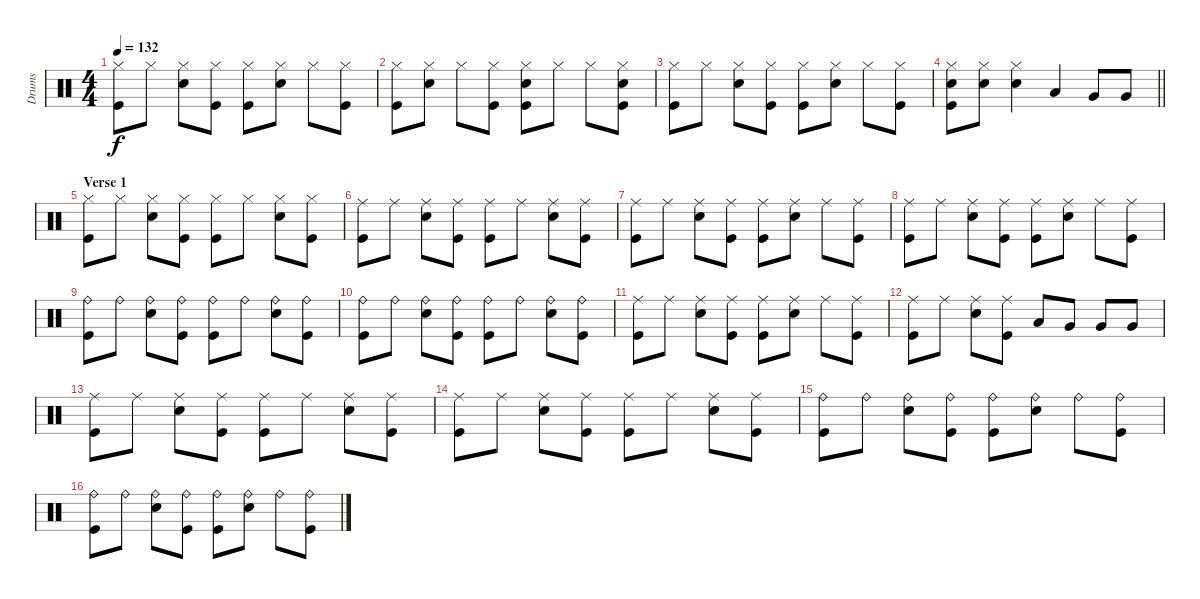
\track ("Drums" "Drums") {instrument percussion}
\staff {score}
\articulation defaults
\ts (4 4)
\tempo 132
\clef neutral
\ks c
("Hi-Hat (closed)" "Kick (hit)").8{dy f} "Hi-Hat (closed)".8 ("Hi-Hat (closed)" "Electric Snare (hit)").8 ("Hi-Hat (closed)" "Kick (hit)").8 ("Hi-Hat (closed)" "Kick (hit)").8 ("Hi-Hat (closed)" "Electric Snare (hit)").8 "Hi-Hat (closed)".8 ("Hi-Hat (closed)" "Kick (hit)").8 |
("Hi-Hat (closed)" "Kick (hit)").8 ("Hi-Hat (closed)" "Electric Snare (hit)").8 "Hi-Hat (closed)".8 ("Hi-Hat (closed)" "Kick (hit)").8 ("Hi-Hat (closed)" "Electric Snare (hit)" "Kick (hit)").8 "Hi-Hat (closed)".8 "Hi-Hat (closed)".8 ("Hi-Hat (closed)" "Electric Snare (hit)" "Kick (hit)").8 |
("Hi-Hat (closed)" "Kick (hit)").8 "Hi-Hat (closed)".8 ("Hi-Hat (closed)" "Electric Snare (hit)").8 ("Hi-Hat (closed)" "Kick (hit)").8 ("Hi-Hat (closed)" "Kick (hit)").8 ("Hi-Hat (closed)" "Electric Snare (hit)").8 "Hi-Hat (closed)".8 ("Hi-Hat (closed)" "Kick (hit)").8 |
\barLineRight lightlight
("Hi-Hat (closed)" "Electric Snare (hit)" "Kick (hit)").8 ("Hi-Hat (closed)" "Electric Snare (hit)").8 ("Hi-Hat (closed)" "Electric Snare (hit)").4 "Low Tom (hit)".4 "Very Low Tom (hit)".8 "Very Low Tom (hit)".8 |
\section ("" "Verse 1")
("Hi-Hat (closed)" "Kick (hit)").8 "Hi-Hat (closed)".8 ("Hi-Hat (closed)" "Electric Snare (hit)").8 ("Hi-Hat (closed)" "Kick (hit)").8 ("Hi-Hat (closed)" "Kick (hit)").8 "Hi-Hat (closed)".8 ("Hi-Hat (closed)" "Electric Snare (hit)").8 ("Hi-Hat (closed)" "Kick (hit)").8 |
("Ride (middle)" "Kick (hit)").8 "Ride (middle)".8 ("Ride (middle)" "Electric Snare (hit)").8 ("Ride (middle)" "Kick (hit)").8 ("Ride (middle)" "Kick (hit)").8 "Ride (middle)".8 ("Ride (middle)" "Electric Snare (hit)").8 ("Ride (middle)" "Kick (hit)").8 |
("Ride (middle)" "Kick (hit)").8 "Ride (middle)".8 ("Ride (middle)" "Electric Snare (hit)").8 ("Ride (middle)" "Kick (hit)").8 ("Ride (middle)" "Kick (hit)").8 ("Ride (middle)" "Electric Snare (hit)").8 "Ride (middle)".8 ("Ride (middle)" "Kick (hit)").8 |
("Ride (middle)" "Kick (hit)").8 "Ride (middle)".8 ("Ride (middle)" "Electric Snare (hit)").8 ("Ride (middle)" "Kick (hit)").8 ("Ride (middle)" "Kick (hit)").8 ("Ride (middle)" "Electric Snare (hit)").8 "Ride (middle)".8 ("Ride (middle)" "Kick (hit)").8 |
("Ride (bell)" "Kick (hit)").8 "Ride (bell)".8 ("Ride (bell)" "Electric Snare (hit)").8 ("Ride (bell)" "Kick (hit)").8 ("Ride (bell)" "Kick (hit)").8 "Ride (bell)".8 ("Ride (bell)" "Electric Snare (hit)").8 ("Ride (bell)" "Kick (hit)").8 |
("Ride (bell)" "Kick (hit)").8 "Ride (bell)".8 ("Ride (bell)" "Electric Snare (hit)").8 ("Ride (bell)" "Kick (hit)").8 ("Ride (bell)" "Kick (hit)").8 "Ride (bell)".8 ("Ride (bell)" "Electric Snare (hit)").8 ("Ride (bell)" "Kick (hit)").8 |
("Ride (middle)" "Kick (hit)").8 "Ride (middle)".8 ("Ride (middle)" "Electric Snare (hit)").8 ("Ride (middle)" "Kick (hit)").8 ("Ride (middle)" "Kick (hit)").8 ("Ride (middle)" "Electric Snare (hit)").8 "Ride (middle)".8 ("Ride (middle)" "Kick (hit)").8 |
("Ride (middle)" "Kick (hit)").8 "Ride (middle)".8 ("Ride (middle)" "Electric Snare (hit)").8 ("Ride (middle)" "Kick (hit)").8 "Low Tom (hit)".8 "Very Low Tom (hit)".8 "Very Low Tom (hit)".8 "Very Low Tom (hit)".8 |
("Ride (middle)" "Kick (hit)").8 "Ride (middle)".8 ("Ride (middle)" "Electric Snare (hit)").8 ("Ride (middle)" "Kick (hit)").8 ("Ride (middle)" "Kick (hit)").8 "Ride (middle)".8 ("Ride (middle)" "Electric Snare (hit)").8 ("Ride (middle)" "Kick (hit)").8 |
("Ride (middle)" "Kick (hit)").8 "Ride (middle)".8 ("Ride (middle)" "Electric Snare (hit)").8 ("Ride (middle)" "Kick (hit)").8 ("Ride (middle)" "Kick (hit)").8 "Ride (middle)".8 ("Ride (middle)" "Electric Snare (hit)").8 ("Ride (middle)" "Kick (hit)").8 |
("Ride (bell)" "Kick (hit)").8 "Ride (bell)".8 ("Ride (bell)" "Electric Snare (hit)").8 ("Ride (bell)" "Kick (hit)").8 ("Ride (bell)" "Kick (hit)").8 ("Ride (bell)" "Electric Snare (hit)").8 "Ride (bell)".8 ("Ride (bell)" "Kick (hit)").8 |
("Ride (bell)" "Kick (hit)").8 "Ride (bell)".8 ("Ride (bell)" "Electric Snare (hit)").8 ("Ride (bell)" "Kick (hit)").8 ("Ride (bell)" "Kick (hit)").8 ("Ride (bell)" "Electric Snare (hit)").8 "Ride (bell)".8 ("Ride (bell)" "Kick (hit)").8
